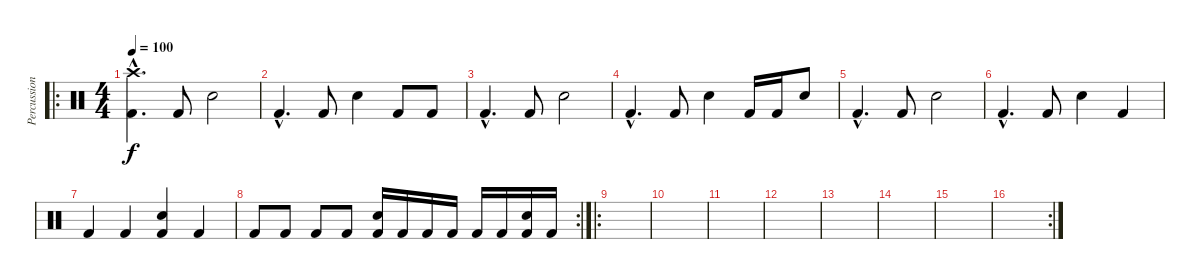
\track ("Percussions" "Percussion") {instrument percussion}
\staff {score}
\articulation defaults
\ro
\ts (4 4)
\tempo 100
\clef neutral
\ks c
("Crash high (hit)"{hac} "Kick (hit) 2"{hac}).4{d dy f} "Kick (hit) 2".8 "Snare (hit) 2".2 |
"Kick (hit) 2"{hac}.4{d} "Kick (hit) 2".8 "Snare (hit) 2".4 "Kick (hit) 2".8 "Kick (hit) 2".8 |
"Kick (hit) 2"{hac}.4{d} "Kick (hit) 2".8 "Snare (hit) 2".2 |
"Kick (hit) 2"{hac}.4{d} "Kick (hit) 2".8 "Snare (hit) 2".4 "Kick (hit) 2".16 "Kick (hit) 2".16 "Snare (hit) 2".8 |
"Kick (hit) 2"{hac}.4{d} "Kick (hit) 2".8 "Snare (hit) 2".2 |
"Kick (hit) 2"{hac}.4{d} "Kick (hit) 2".8 "Snare (hit) 2".4 "Kick (hit) 2".4 |
"Kick (hit) 2".4 "Kick (hit) 2".4 ("Snare (hit) 2" "Kick (hit) 2").4 "Kick (hit) 2".4 |
\rc 2 "Kick (hit) 2".8 "Kick (hit) 2".8 "Kick (hit) 2".8 "Kick (hit) 2".8
("Snare (hit) 2" "Kick (hit) 2").16 "Kick (hit) 2".16 "Kick (hit) 2".16 "Kick (hit) 2".16 "Kick (hit) 2".16 "Kick (hit) 2".16 ("Snare (hit) 2" "Kick (hit) 2").16 "Kick (hit) 2".16 |
\ro
|
|
|
|
|
|
|
\rc 2
